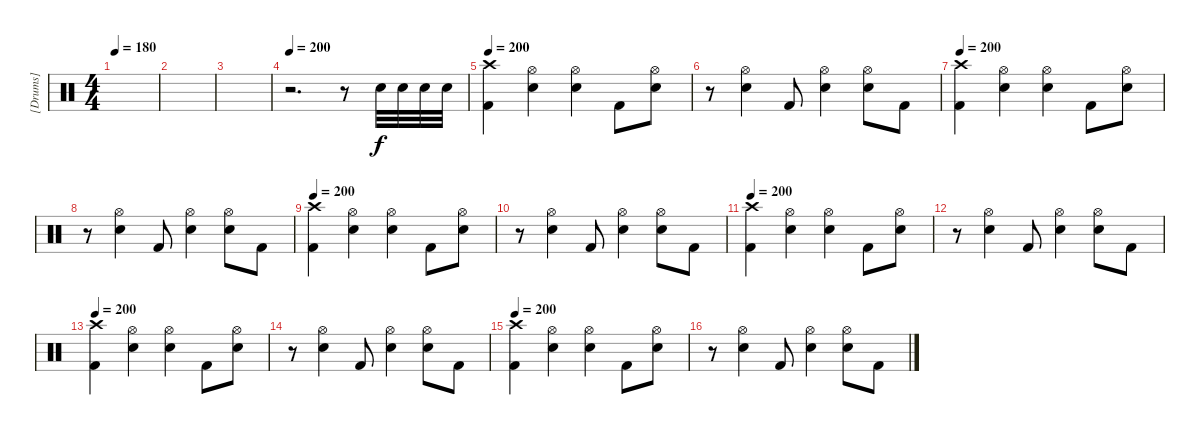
\track ("[Drums]" "[Drums]") {instrument percussion}
\staff {score}
\articulation defaults
\ts (4 4)
\tempo 180
\clef neutral
\ks c
|
|
|
\tempo 200
r.2{d} r.8 "Snare (hit) 2".32 "Snare (hit) 2".32 "Snare (hit) 2".32 "Snare (hit) 2".32 |
\section ("" "")
\tempo 200
("Crash high (hit)" "Kick (hit) 2").4 ("Hi-Hat (open)" "Snare (hit) 2").4 ("Hi-Hat (open)" "Snare (hit) 2").4 "Kick (hit) 2".8 ("Hi-Hat (open)" "Snare (hit) 2").8 |
r.8 ("Hi-Hat (open)" "Snare (hit) 2").4 "Kick (hit) 2".8 ("Hi-Hat (open)" "Snare (hit) 2").4 ("Hi-Hat (open)" "Snare (hit) 2").8 "Kick (hit) 2".8 |
\tempo 200
("Crash high (hit)" "Kick (hit) 2").4 ("Hi-Hat (open)" "Snare (hit) 2").4 ("Hi-Hat (open)" "Snare (hit) 2").4 "Kick (hit) 2".8 ("Hi-Hat (open)" "Snare (hit) 2").8 |
r.8 ("Hi-Hat (open)" "Snare (hit) 2").4 "Kick (hit) 2".8 ("Hi-Hat (open)" "Snare (hit) 2").4 ("Hi-Hat (open)" "Snare (hit) 2").8 "Kick (hit) 2".8 |
\tempo 200
("Crash high (hit)" "Kick (hit) 2").4 ("Hi-Hat (open)" "Snare (hit) 2").4 ("Hi-Hat (open)" "Snare (hit) 2").4 "Kick (hit) 2".8 ("Hi-Hat (open)" "Snare (hit) 2").8 |
r.8 ("Hi-Hat (open)" "Snare (hit) 2").4 "Kick (hit) 2".8 ("Hi-Hat (open)" "Snare (hit) 2").4 ("Hi-Hat (open)" "Snare (hit) 2").8 "Kick (hit) 2".8 |
\tempo 200
("Crash high (hit)" "Kick (hit) 2").4 ("Hi-Hat (open)" "Snare (hit) 2").4 ("Hi-Hat (open)" "Snare (hit) 2").4 "Kick (hit) 2".8 ("Hi-Hat (open)" "Snare (hit) 2").8 |
r.8 ("Hi-Hat (open)" "Snare (hit) 2").4 "Kick (hit) 2".8 ("Hi-Hat (open)" "Snare (hit) 2").4 ("Hi-Hat (open)" "Snare (hit) 2").8 "Kick (hit) 2".8 |
\tempo 200
("Crash high (hit)" "Kick (hit) 2").4 ("Hi-Hat (open)" "Snare (hit) 2").4 ("Hi-Hat (open)" "Snare (hit) 2").4 "Kick (hit) 2".8 ("Hi-Hat (open)" "Snare (hit) 2").8 |
r.8 ("Hi-Hat (open)" "Snare (hit) 2").4 "Kick (hit) 2".8 ("Hi-Hat (open)" "Snare (hit) 2").4 ("Hi-Hat (open)" "Snare (hit) 2").8 "Kick (hit) 2".8 |
\tempo 200
("Crash high (hit)" "Kick (hit) 2").4 ("Hi-Hat (open)" "Snare (hit) 2").4 ("Hi-Hat (open)" "Snare (hit) 2").4 "Kick (hit) 2".8 ("Hi-Hat (open)" "Snare (hit) 2").8 |
r.8 ("Hi-Hat (open)" "Snare (hit) 2").4 "Kick (hit) 2".8 ("Hi-Hat (open)" "Snare (hit) 2").4 ("Hi-Hat (open)" "Snare (hit) 2").8 "Kick (hit) 2".8
